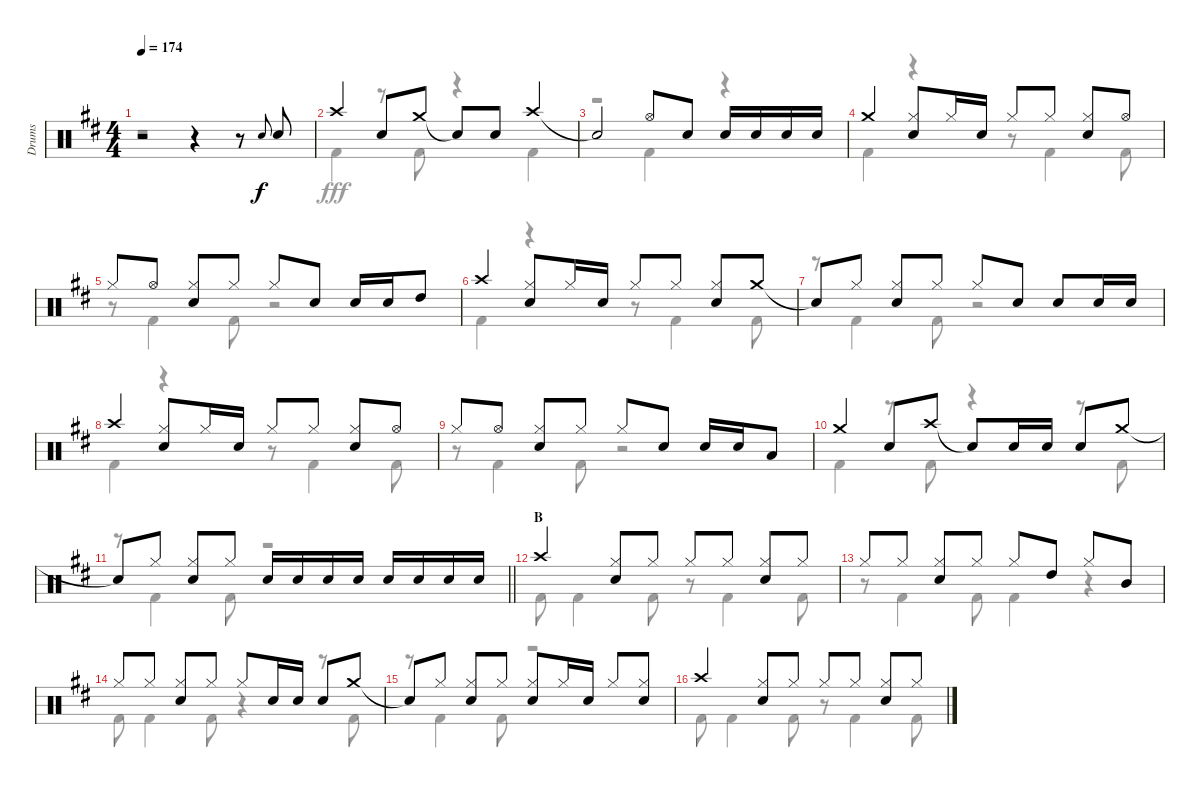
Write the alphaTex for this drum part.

\track ("Drums" "Drums") {instrument percussion}
\staff {score}
\articulation defaults
\voice
\ts (4 4)
\tempo 174
\clef neutral
\ks bminor
r.2{dy f} r.4 r.8 "Snare (hit) 2".8{gr onbeat} "Snare (hit) 2".8 |
"Crash high (hit)".4 "Snare (hit) 2".8 "Crash medium (hit)".8 "Snare (hit)"{t}.8 "Snare (hit) 2".8 "Crash high (hit)".4 |
"Snare (hit)"{t}.2 "Hi-Hat (open)".8 "Snare (hit) 2".8 "Snare (hit) 2".16 "Snare (hit) 2".16 "Snare (hit) 2".16 "Snare (hit) 2".16 |
"Crash medium (hit)".4 ("Hi-Hat (closed)" "Snare (hit) 2").8 "Hi-Hat (closed)".16 "Snare (hit) 2".16 "Hi-Hat (closed)".8 "Hi-Hat (closed)".8 ("Hi-Hat (closed)" "Snare (hit) 2").8 "Hi-Hat (open)".8 |
"Hi-Hat (closed)".8 "Hi-Hat (open)".8 ("Hi-Hat (closed)" "Snare (hit) 2").8 "Hi-Hat (closed)".8 "Hi-Hat (closed)".8 "Snare (hit) 2".8 "Snare (hit) 2".16 "Snare (hit) 2".16 "High Tom (hit)".8 |
"Crash high (hit)".4 ("Hi-Hat (closed)" "Snare (hit) 2").8 "Hi-Hat (closed)".16 "Snare (hit) 2".16 "Hi-Hat (closed)".8 "Hi-Hat (closed)".8 ("Hi-Hat (closed)" "Snare (hit) 2").8 "Crash medium (hit)".8 |
"Snare (hit)"{t}.8 "Hi-Hat (closed)".8 ("Hi-Hat (closed)" "Snare (hit) 2").8 "Hi-Hat (closed)".8 "Hi-Hat (closed)".8 "Snare (hit) 2".8 "Snare (hit) 2".8 "Snare (hit) 2".16 "Snare (hit) 2".16 |
"Crash high (hit)".4 ("Hi-Hat (closed)" "Snare (hit) 2").8 "Hi-Hat (closed)".16 "Snare (hit) 2".16 "Hi-Hat (closed)".8 "Hi-Hat (closed)".8 ("Hi-Hat (closed)" "Snare (hit) 2").8 "Hi-Hat (open)".8 |
"Hi-Hat (closed)".8 "Hi-Hat (open)".8 ("Hi-Hat (closed)" "Snare (hit) 2").8 "Hi-Hat (closed)".8 "Hi-Hat (closed)".8 "Snare (hit) 2".8 "Snare (hit) 2".16 "Snare (hit) 2".16 "Low Tom (hit)".8 |
"Crash medium (hit)".4 "Snare (hit) 2".8 "Crash high (hit)".8 "Snare (hit)"{t}.8 "Snare (hit) 2".16 "Snare (hit) 2".16 "Snare (hit) 2".8 "Crash medium (hit)".8 |
\barLineRight lightlight "Snare (hit)"{t}.8 "Hi-Hat (closed)".8
("Hi-Hat (closed)" "Snare (hit) 2").8 "Hi-Hat (closed)".8 "Snare (hit) 2".16 "Snare (hit) 2".16 "Snare (hit) 2".16 "Snare (hit) 2".16 "Snare (hit) 2".16 "Snare (hit) 2".16 "Snare (hit) 2".16 "Snare (hit) 2".16 |
\section ("" "B")
"Crash high (hit)".4 ("Hi-Hat (closed)" "Snare (hit) 2").8 "Hi-Hat (closed)".8 "Hi-Hat (closed)".8 "Hi-Hat (closed)".8 ("Hi-Hat (closed)" "Snare (hit) 2").8 "Hi-Hat (closed)".8 |
"Hi-Hat (closed)".8 "Hi-Hat (closed)".8 ("Hi-Hat (closed)" "Snare (hit) 2").8 "Hi-Hat (closed)".8 "Hi-Hat (closed)".8 "High Tom (hit)".8 "Hi-Hat (closed)".8 "Mid Tom (hit)".8 |
"Hi-Hat (closed)".8 "Hi-Hat (closed)".8 ("Hi-Hat (closed)" "Snare (hit) 2").8 "Hi-Hat (closed)".8 "Hi-Hat (closed)".8 "Snare (hit) 2".16 "Snare (hit) 2".16 "Snare (hit) 2".8 "Crash medium (hit)".8 |
"Snare (hit)"{t}.8 "Hi-Hat (closed)".8 ("Hi-Hat (closed)" "Snare (hit) 2").8 "Hi-Hat (closed)".8 ("Hi-Hat (closed)" "Snare (hit) 2").8 "Hi-Hat (closed)".16 "Snare (hit) 2".16 "Hi-Hat (closed)".8 ("Hi-Hat (closed)" "Snare (hit) 2").8 |
"Crash high (hit)".4 ("Hi-Hat (closed)" "Snare (hit) 2").8 "Hi-Hat (closed)".8 "Hi-Hat (closed)".8 "Hi-Hat (closed)".8 ("Hi-Hat (closed)" "Snare (hit) 2").8 "Hi-Hat (closed)".8
\voice
\clef neutral
\ottava regular
\simile none
\ks bminor
r.1{dy fff} |
"Kick (hit) 2".4 r.8 "Kick (hit) 2".8 r.4 "Kick (hit) 2".4 |
r.2 "Kick (hit) 2".4 r.4 |
"Kick (hit) 2".4 r.4 r.8 "Kick (hit) 2".4 "Kick (hit) 2".8 |
r.8 "Kick (hit) 2".4 "Kick (hit) 2".8 r.2 |
"Kick (hit) 2".4 r.4 r.8 "Kick (hit) 2".4 "Kick (hit) 2".8 |
r.8 "Kick (hit) 2".4 "Kick (hit) 2".8 r.2 |
"Kick (hit) 2".4 r.4 r.8 "Kick (hit) 2".4 "Kick (hit) 2".8 |
r.8 "Kick (hit) 2".4 "Kick (hit) 2".8 r.2 |
"Kick (hit) 2".4 r.8 "Kick (hit) 2".8 r.4 r.8 "Kick (hit) 2".8 |
\barLineRight lightlight
r.8 "Kick (hit) 2".4 "Kick (hit) 2".8 r.2 |
"Kick (hit) 2".8 "Kick (hit) 2".4 "Kick (hit) 2".8 r.8 "Kick (hit) 2".4 "Kick (hit) 2".8 |
r.8 "Kick (hit) 2".4 "Kick (hit) 2".8 "Kick (hit) 2".4 r.4 |
"Kick (hit) 2".8 "Kick (hit) 2".4 "Kick (hit) 2".8 r.4 r.8 "Kick (hit) 2".8 |
r.8 "Kick (hit) 2".4 "Kick (hit) 2".8 r.2 |
"Kick (hit) 2".8 "Kick (hit) 2".4 "Kick (hit) 2".8 r.8 "Kick (hit) 2".4 "Kick (hit) 2".8
